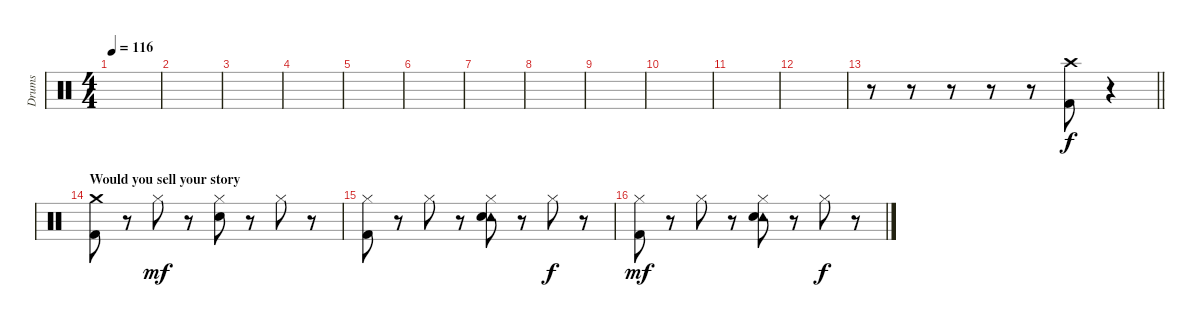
\track ("Drums" "Drums") {instrument percussion}
\staff {score}
\articulation defaults
\ts (4 4)
\tempo 116
\clef neutral
\ks c
|
|
|
|
|
|
|
|
|
|
|
|
\barLineRight lightlight
r.8 r.8 r.8 r.8 r.8 ("Crash high (hit)" "Kick (hit) 2").8 r.4 |
\section ("" "Would you sell your story")
("Crash medium (hit)" "Kick (hit) 2").8 r.8 "Hi-Hat (closed)".8{dy mf} r.8 ("Hi-Hat (closed)" "Snare (hit) 2").8 r.8 "Hi-Hat (closed)".8 r.8 |
("Hi-Hat (closed)" "Kick (hit) 2").8 r.8 "Hi-Hat (closed)".8 r.8 ("Tambourine (hit)" "Hi-Hat (closed)" "Snare (hit) 2").8 r.8 "Hi-Hat (closed)".8{dy f} r.8 |
("Hi-Hat (closed)" "Kick (hit) 2").8{dy mf} r.8 "Hi-Hat (closed)".8 r.8 ("Tambourine (hit)" "Hi-Hat (closed)" "Snare (hit) 2").8 r.8 "Hi-Hat (closed)".8{dy f} r.8
